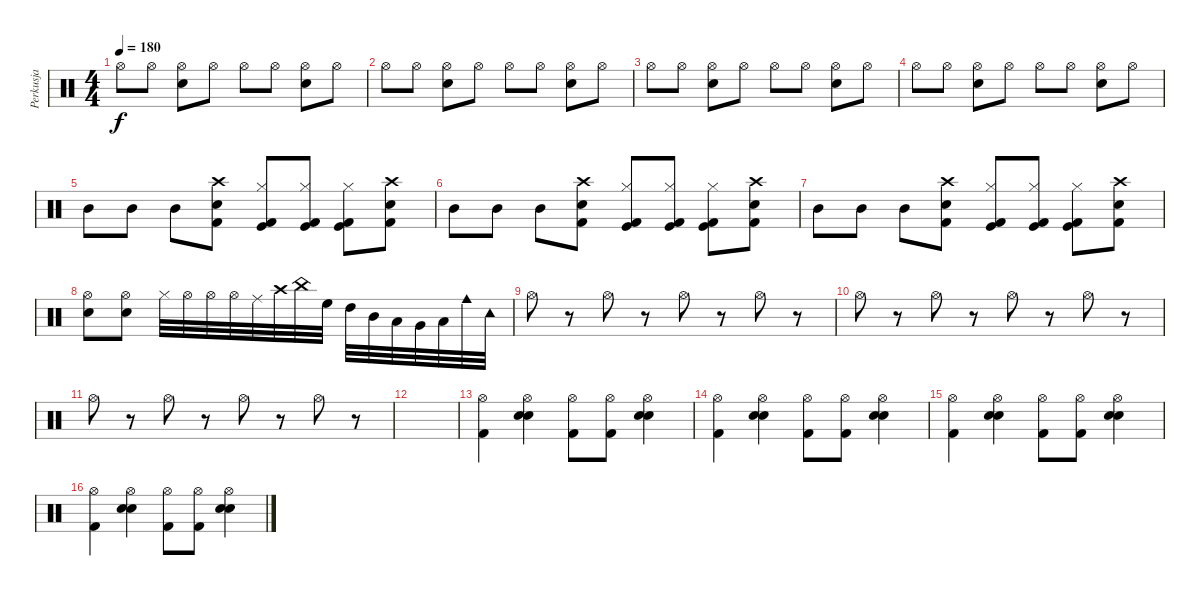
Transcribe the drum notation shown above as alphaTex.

\track ("Perkusja" "Perkusja") {instrument percussion}
\staff {score}
\articulation defaults
\ts (4 4)
\tempo 180
\clef neutral
\ks c "Hi-Hat (open)".8{dy f} "Hi-Hat (open)".8
("Hi-Hat (open)" "Electric Snare (hit)").8 "Hi-Hat (open)".8 "Hi-Hat (open)".8 "Hi-Hat (open)".8 ("Hi-Hat (open)" "Electric Snare (hit)").8 "Hi-Hat (open)".8 |
"Hi-Hat (open)".8 "Hi-Hat (open)".8 ("Hi-Hat (open)" "Electric Snare (hit)").8 "Hi-Hat (open)".8 "Hi-Hat (open)".8 "Hi-Hat (open)".8 ("Hi-Hat (open)" "Electric Snare (hit)").8 "Hi-Hat (open)".8 |
"Hi-Hat (open)".8 "Hi-Hat (open)".8 ("Hi-Hat (open)" "Electric Snare (hit)").8 "Hi-Hat (open)".8 "Hi-Hat (open)".8 "Hi-Hat (open)".8 ("Hi-Hat (open)" "Electric Snare (hit)").8 "Hi-Hat (open)".8 |
"Hi-Hat (open)".8 "Hi-Hat (open)".8 ("Hi-Hat (open)" "Electric Snare (hit)").8 "Hi-Hat (open)".8 "Hi-Hat (open)".8 "Hi-Hat (open)".8 ("Hi-Hat (open)" "Electric Snare (hit)").8 "Hi-Hat (open)".8 |
"Mid Tom (hit)".8 "Mid Tom (hit)".8 "Mid Tom (hit)".8 ("Crash high (hit)" "Kick (hit) 2" "Snare (hit) 2").8 ("Hi-Hat (closed)" "Kick (hit)" "Kick (hit) 2").8 ("Hi-Hat (closed)" "Kick (hit)" "Kick (hit) 2").8 ("Hi-Hat (closed)" "Kick (hit)" "Kick (hit) 2").8 ("Crash high (hit)" "Kick (hit) 2" "Snare (hit) 2").8 |
"Mid Tom (hit)".8 "Mid Tom (hit)".8 "Mid Tom (hit)".8 ("Crash high (hit)" "Kick (hit) 2" "Snare (hit) 2").8 ("Hi-Hat (closed)" "Kick (hit)" "Kick (hit) 2").8 ("Hi-Hat (closed)" "Kick (hit)" "Kick (hit) 2").8 ("Hi-Hat (closed)" "Kick (hit)" "Kick (hit) 2").8 ("Crash high (hit)" "Kick (hit) 2" "Snare (hit) 2").8 |
"Mid Tom (hit)".8 "Mid Tom (hit)".8 "Mid Tom (hit)".8 ("Crash high (hit)" "Kick (hit) 2" "Snare (hit) 2").8 ("Hi-Hat (closed)" "Kick (hit)" "Kick (hit) 2").8 ("Hi-Hat (closed)" "Kick (hit)" "Kick (hit) 2").8 ("Hi-Hat (closed)" "Kick (hit)" "Kick (hit) 2").8 ("Crash high (hit)" "Kick (hit) 2" "Snare (hit) 2").8 |
("Hi-Hat (open)" "Snare (hit) 2").8 ("Hi-Hat (open)" "Snare (hit) 2").8 "Hi-Hat (closed)".32 "Hi-Hat (open)".32 "Hi-Hat (open)".32 "Hi-Hat (open)".32 "Ride (middle)".32 "Crash high (hit)".32 "China (hit)".32 "High Floor Tom (hit)".32 "High Tom (hit)".32 "Mid Tom (hit)".32 "Low Tom (hit)".32 "Very Low Tom (hit)".32 "Low Floor Tom (hit)".32 "Cowbell medium (hit)".32 "Tambourine (hit)".32 |
"Hi-Hat (open)".8 r.8 "Hi-Hat (open)".8 r.8 "Hi-Hat (open)".8 r.8 "Hi-Hat (open)".8 r.8 |
"Hi-Hat (open)".8 r.8 "Hi-Hat (open)".8 r.8 "Hi-Hat (open)".8 r.8 "Hi-Hat (open)".8 r.8 |
"Hi-Hat (open)".8 r.8 "Hi-Hat (open)".8 r.8 "Hi-Hat (open)".8 r.8 "Hi-Hat (open)".8 r.8 |
|
("Kick (hit) 2" "Hi-Hat (open)").4 ("Hi-Hat (open)" "Snare (hit) 2" "Electric Snare (hit)").4 ("Kick (hit) 2" "Hi-Hat (open)").8 ("Kick (hit) 2" "Hi-Hat (open)").8 ("Hi-Hat (open)" "Snare (hit) 2" "Electric Snare (hit)").4 |
("Kick (hit) 2" "Hi-Hat (open)").4 ("Hi-Hat (open)" "Snare (hit) 2" "Electric Snare (hit)").4 ("Kick (hit) 2" "Hi-Hat (open)").8 ("Kick (hit) 2" "Hi-Hat (open)").8 ("Hi-Hat (open)" "Snare (hit) 2" "Electric Snare (hit)").4 |
("Kick (hit) 2" "Hi-Hat (open)").4 ("Hi-Hat (open)" "Snare (hit) 2" "Electric Snare (hit)").4 ("Kick (hit) 2" "Hi-Hat (open)").8 ("Kick (hit) 2" "Hi-Hat (open)").8 ("Hi-Hat (open)" "Snare (hit) 2" "Electric Snare (hit)").4 |
("Kick (hit) 2" "Hi-Hat (open)").4 ("Hi-Hat (open)" "Snare (hit) 2" "Electric Snare (hit)").4 ("Kick (hit) 2" "Hi-Hat (open)").8 ("Kick (hit) 2" "Hi-Hat (open)").8 ("Hi-Hat (open)" "Snare (hit) 2" "Electric Snare (hit)").4
